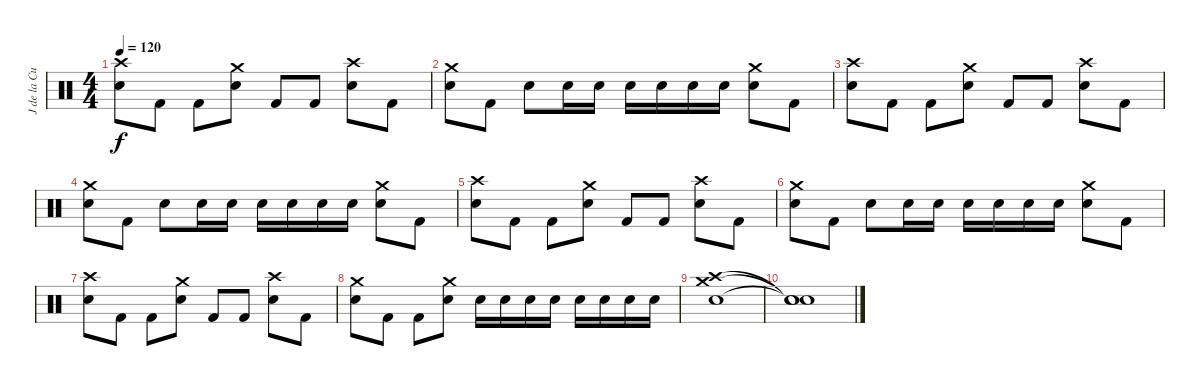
\track ("J de la Cueva" "J de la Cu") {instrument percussion}
\staff {score}
\articulation defaults
\ts (4 4)
\tempo 120
\clef neutral
\ks c
("Crash high (hit)" "Snare (hit) 2").8{dy f} "Kick (hit) 2".8 "Kick (hit) 2".8 ("Crash medium (hit)" "Snare (hit) 2").8 "Kick (hit) 2".8 "Kick (hit) 2".8 ("Crash high (hit)" "Snare (hit) 2").8 "Kick (hit) 2".8 |
("Crash medium (hit)" "Snare (hit) 2").8 "Kick (hit) 2".8 "Snare (hit) 2".8 "Snare (hit) 2".16 "Snare (hit) 2".16 "Snare (hit) 2".16 "Snare (hit) 2".16 "Snare (hit) 2".16 "Snare (hit) 2".16 ("Crash medium (hit)" "Snare (hit) 2").8 "Kick (hit) 2".8 |
("Crash high (hit)" "Snare (hit) 2").8 "Kick (hit) 2".8 "Kick (hit) 2".8 ("Crash medium (hit)" "Snare (hit) 2").8 "Kick (hit) 2".8 "Kick (hit) 2".8 ("Crash high (hit)" "Snare (hit) 2").8 "Kick (hit) 2".8 |
("Crash medium (hit)" "Snare (hit) 2").8 "Kick (hit) 2".8 "Snare (hit) 2".8 "Snare (hit) 2".16 "Snare (hit) 2".16 "Snare (hit) 2".16 "Snare (hit) 2".16 "Snare (hit) 2".16 "Snare (hit) 2".16 ("Crash medium (hit)" "Snare (hit) 2").8 "Kick (hit) 2".8 |
("Crash high (hit)" "Snare (hit) 2").8 "Kick (hit) 2".8 "Kick (hit) 2".8 ("Crash medium (hit)" "Snare (hit) 2").8 "Kick (hit) 2".8 "Kick (hit) 2".8 ("Crash high (hit)" "Snare (hit) 2").8 "Kick (hit) 2".8 |
("Crash medium (hit)" "Snare (hit) 2").8 "Kick (hit) 2".8 "Snare (hit) 2".8 "Snare (hit) 2".16 "Snare (hit) 2".16 "Snare (hit) 2".16 "Snare (hit) 2".16 "Snare (hit) 2".16 "Snare (hit) 2".16 ("Crash medium (hit)" "Snare (hit) 2").8 "Kick (hit) 2".8 |
("Crash high (hit)" "Snare (hit) 2").8 "Kick (hit) 2".8 "Kick (hit) 2".8 ("Crash medium (hit)" "Snare (hit) 2").8 "Kick (hit) 2".8 "Kick (hit) 2".8 ("Crash high (hit)" "Snare (hit) 2").8 "Kick (hit) 2".8 |
("Crash medium (hit)" "Snare (hit) 2").8 "Kick (hit) 2".8 "Kick (hit) 2".8 ("Crash medium (hit)" "Snare (hit) 2").8 "Snare (hit) 2".16 "Snare (hit) 2".16 "Snare (hit) 2".16 "Snare (hit) 2".16 "Snare (hit) 2".16 "Snare (hit) 2".16 "Electric Snare (hit)".16 "Electric Snare (hit)".16 |
("Crash high (hit)" "Crash medium (hit)" "Snare (hit) 2").1 |
("Snare (hit)"{t} "Snare (hit)"{t} "Snare (hit)"{t}).1
